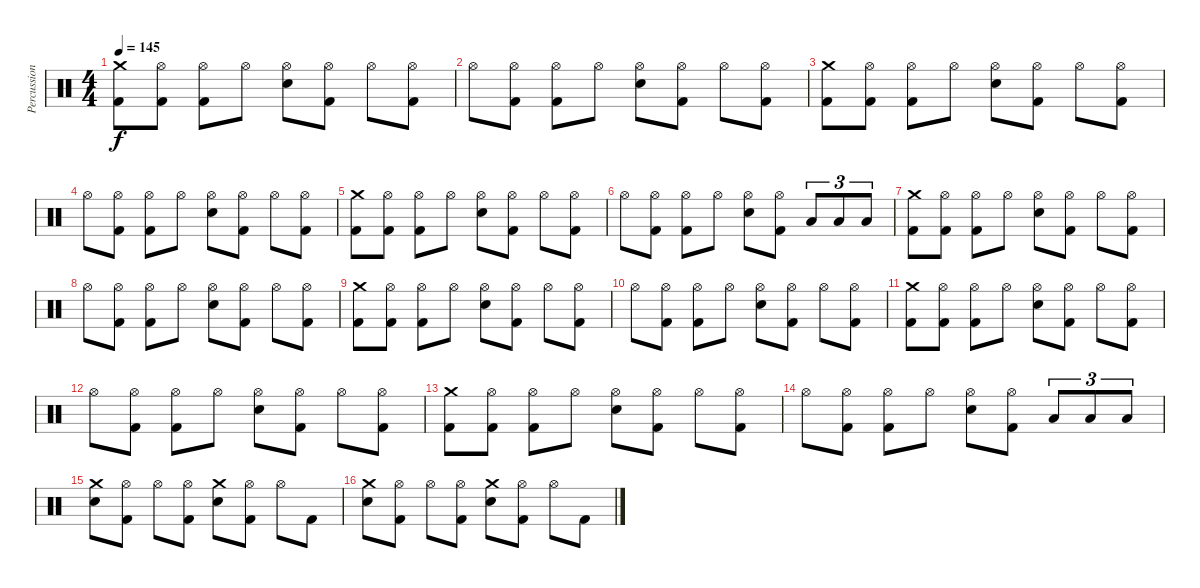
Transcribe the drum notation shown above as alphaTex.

\track ("Percussion" "Percussion") {instrument percussion}
\staff {score}
\articulation defaults
\ts (4 4)
\tempo 145
\clef neutral
\ks c
("Crash medium (hit)" "Kick (hit) 2").8{dy f} ("Hi-Hat (open)" "Kick (hit) 2").8 ("Hi-Hat (open)" "Kick (hit) 2").8 "Hi-Hat (open)".8 ("Hi-Hat (open)" "Electric Snare (hit)").8 ("Hi-Hat (open)" "Kick (hit) 2").8 "Hi-Hat (open)".8 ("Hi-Hat (open)" "Kick (hit) 2").8 |
"Hi-Hat (open)".8 ("Hi-Hat (open)" "Kick (hit) 2").8 ("Hi-Hat (open)" "Kick (hit) 2").8 "Hi-Hat (open)".8 ("Hi-Hat (open)" "Electric Snare (hit)").8 ("Hi-Hat (open)" "Kick (hit) 2").8 "Hi-Hat (open)".8 ("Hi-Hat (open)" "Kick (hit) 2").8 |
("Crash medium (hit)" "Kick (hit) 2").8 ("Hi-Hat (open)" "Kick (hit) 2").8 ("Hi-Hat (open)" "Kick (hit) 2").8 "Hi-Hat (open)".8 ("Hi-Hat (open)" "Electric Snare (hit)").8 ("Hi-Hat (open)" "Kick (hit) 2").8 "Hi-Hat (open)".8 ("Hi-Hat (open)" "Kick (hit) 2").8 |
"Hi-Hat (open)".8 ("Hi-Hat (open)" "Kick (hit) 2").8 ("Hi-Hat (open)" "Kick (hit) 2").8 "Hi-Hat (open)".8 ("Hi-Hat (open)" "Electric Snare (hit)").8 ("Hi-Hat (open)" "Kick (hit) 2").8 "Hi-Hat (open)".8 ("Hi-Hat (open)" "Kick (hit) 2").8 |
("Crash medium (hit)" "Kick (hit) 2").8 ("Hi-Hat (open)" "Kick (hit) 2").8 ("Hi-Hat (open)" "Kick (hit) 2").8 "Hi-Hat (open)".8 ("Hi-Hat (open)" "Electric Snare (hit)").8 ("Hi-Hat (open)" "Kick (hit) 2").8 "Hi-Hat (open)".8 ("Hi-Hat (open)" "Kick (hit) 2").8 |
"Hi-Hat (open)".8 ("Hi-Hat (open)" "Kick (hit) 2").8 ("Hi-Hat (open)" "Kick (hit) 2").8 "Hi-Hat (open)".8 ("Hi-Hat (open)" "Electric Snare (hit)").8 ("Hi-Hat (open)" "Kick (hit) 2").8 "Low Tom (hit)".8{tu (3 2)} "Low Tom (hit)".8{tu (3 2)} "Low Tom (hit)".8{tu (3 2)} |
("Crash medium (hit)" "Kick (hit) 2").8 ("Hi-Hat (open)" "Kick (hit) 2").8 ("Hi-Hat (open)" "Kick (hit) 2").8 "Hi-Hat (open)".8 ("Hi-Hat (open)" "Electric Snare (hit)").8 ("Hi-Hat (open)" "Kick (hit) 2").8 "Hi-Hat (open)".8 ("Hi-Hat (open)" "Kick (hit) 2").8 |
"Hi-Hat (open)".8 ("Hi-Hat (open)" "Kick (hit) 2").8 ("Hi-Hat (open)" "Kick (hit) 2").8 "Hi-Hat (open)".8 ("Hi-Hat (open)" "Electric Snare (hit)").8 ("Hi-Hat (open)" "Kick (hit) 2").8 "Hi-Hat (open)".8 ("Hi-Hat (open)" "Kick (hit) 2").8 |
("Crash medium (hit)" "Kick (hit) 2").8 ("Hi-Hat (open)" "Kick (hit) 2").8 ("Hi-Hat (open)" "Kick (hit) 2").8 "Hi-Hat (open)".8 ("Hi-Hat (open)" "Electric Snare (hit)").8 ("Hi-Hat (open)" "Kick (hit) 2").8 "Hi-Hat (open)".8 ("Hi-Hat (open)" "Kick (hit) 2").8 |
"Hi-Hat (open)".8 ("Hi-Hat (open)" "Kick (hit) 2").8 ("Hi-Hat (open)" "Kick (hit) 2").8 "Hi-Hat (open)".8 ("Hi-Hat (open)" "Electric Snare (hit)").8 ("Hi-Hat (open)" "Kick (hit) 2").8 "Hi-Hat (open)".8 ("Hi-Hat (open)" "Kick (hit) 2").8 |
("Crash medium (hit)" "Kick (hit) 2").8 ("Hi-Hat (open)" "Kick (hit) 2").8 ("Hi-Hat (open)" "Kick (hit) 2").8 "Hi-Hat (open)".8 ("Hi-Hat (open)" "Electric Snare (hit)").8 ("Hi-Hat (open)" "Kick (hit) 2").8 "Hi-Hat (open)".8 ("Hi-Hat (open)" "Kick (hit) 2").8 |
"Hi-Hat (open)".8 ("Hi-Hat (open)" "Kick (hit) 2").8 ("Hi-Hat (open)" "Kick (hit) 2").8 "Hi-Hat (open)".8 ("Hi-Hat (open)" "Electric Snare (hit)").8 ("Hi-Hat (open)" "Kick (hit) 2").8 "Hi-Hat (open)".8 ("Hi-Hat (open)" "Kick (hit) 2").8 |
("Crash medium (hit)" "Kick (hit) 2").8 ("Hi-Hat (open)" "Kick (hit) 2").8 ("Hi-Hat (open)" "Kick (hit) 2").8 "Hi-Hat (open)".8 ("Hi-Hat (open)" "Electric Snare (hit)").8 ("Hi-Hat (open)" "Kick (hit) 2").8 "Hi-Hat (open)".8 ("Hi-Hat (open)" "Kick (hit) 2").8 |
"Hi-Hat (open)".8 ("Hi-Hat (open)" "Kick (hit) 2").8 ("Hi-Hat (open)" "Kick (hit) 2").8 "Hi-Hat (open)".8 ("Hi-Hat (open)" "Electric Snare (hit)").8 ("Hi-Hat (open)" "Kick (hit) 2").8 "Low Tom (hit)".8{tu (3 2)} "Low Tom (hit)".8{tu (3 2)} "Low Tom (hit)".8{tu (3 2)} |
("Crash medium (hit)" "Electric Snare (hit)").8 ("Hi-Hat (open)" "Kick (hit) 2").8 "Hi-Hat (open)".8 ("Hi-Hat (open)" "Kick (hit) 2").8 ("Crash medium (hit)" "Electric Snare (hit)").8 ("Hi-Hat (open)" "Kick (hit) 2").8 "Hi-Hat (open)".8 "Kick (hit) 2".8 |
("Crash medium (hit)" "Electric Snare (hit)").8 ("Hi-Hat (open)" "Kick (hit) 2").8 "Hi-Hat (open)".8 ("Hi-Hat (open)" "Kick (hit) 2").8 ("Crash medium (hit)" "Electric Snare (hit)").8 ("Hi-Hat (open)" "Kick (hit) 2").8 "Hi-Hat (open)".8 "Kick (hit) 2".8
